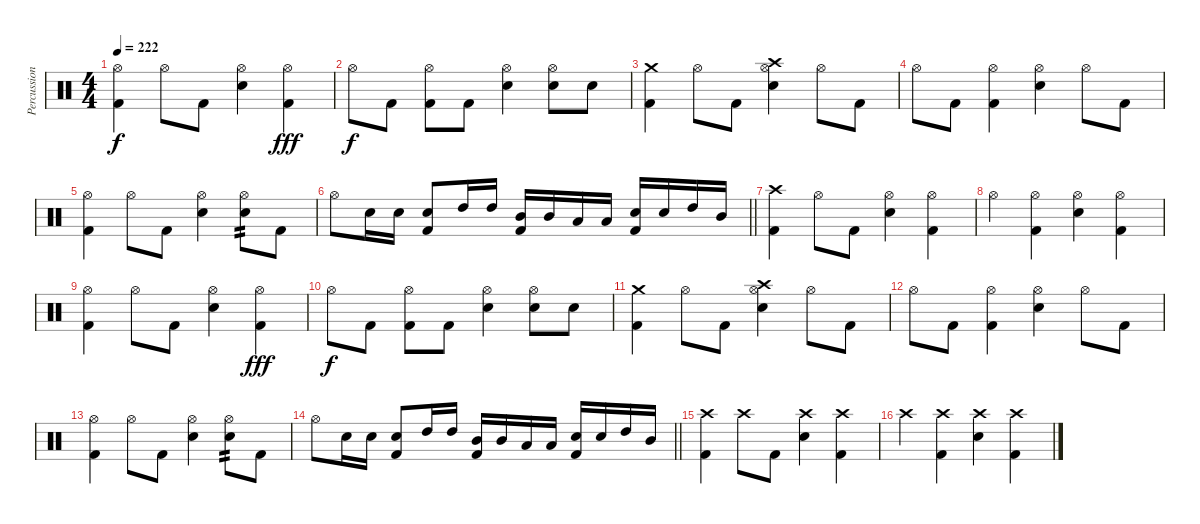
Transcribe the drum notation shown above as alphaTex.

\track ("Percussions" "Percussion") {instrument percussion}
\staff {score}
\articulation defaults
\ts (4 4)
\tempo 222
\clef neutral
\ks c
("Hi-Hat (open)" "Kick (hit) 2").4{dy f} "Hi-Hat (open)".8 "Kick (hit) 2".8 ("Hi-Hat (open)" "Electric Snare (hit)").4 ("Hi-Hat (open)" "Kick (hit) 2").4{dy fff} |
"Hi-Hat (open)".8{dy f} "Kick (hit) 2".8 ("Hi-Hat (open)" "Kick (hit) 2").8 "Kick (hit) 2".8 ("Hi-Hat (open)" "Electric Snare (hit)").4 ("Hi-Hat (open)" "Electric Snare (hit)").8 "Electric Snare (hit)".8 |
("Crash medium (hit)" "Kick (hit) 2").4 "Hi-Hat (open)".8 "Kick (hit) 2".8 ("Crash high (hit)" "Hi-Hat (open)" "Electric Snare (hit)").4 "Hi-Hat (open)".8 "Kick (hit) 2".8 |
"Hi-Hat (open)".8 "Kick (hit) 2".8 ("Hi-Hat (open)" "Kick (hit) 2").4 ("Hi-Hat (open)" "Electric Snare (hit)").4 "Hi-Hat (open)".8 "Kick (hit) 2".8 |
("Hi-Hat (open)" "Kick (hit) 2").4 "Hi-Hat (open)".8 "Kick (hit) 2".8 ("Hi-Hat (open)" "Electric Snare (hit)").4 ("Hi-Hat (open)" "Electric Snare (hit)").8{tp 2} "Kick (hit) 2".8 |
\barLineRight lightlight "Hi-Hat (open)".8 "Electric Snare (hit)".16 "Electric Snare (hit)".16
("Electric Snare (hit)" "Kick (hit) 2").8 "High Tom (hit)".16 "High Tom (hit)".16 ("Mid Tom (hit)" "Kick (hit) 2").16 "Mid Tom (hit)".16 "Low Tom (hit)".16 "Low Tom (hit)".16 ("Electric Snare (hit)" "Kick (hit) 2").16 "Electric Snare (hit)".16 "High Tom (hit)".16 "Mid Tom (hit)".16 |
("Crash high (hit)" "Kick (hit) 2").4 "Hi-Hat (open)".8 "Kick (hit) 2".8 ("Hi-Hat (open)" "Electric Snare (hit)").4 ("Hi-Hat (open)" "Kick (hit) 2").4 |
"Hi-Hat (open)".4 ("Hi-Hat (open)" "Kick (hit) 2").4 ("Hi-Hat (open)" "Electric Snare (hit)").4 ("Hi-Hat (open)" "Kick (hit) 2").4 |
("Hi-Hat (open)" "Kick (hit) 2").4 "Hi-Hat (open)".8 "Kick (hit) 2".8 ("Hi-Hat (open)" "Electric Snare (hit)").4 ("Hi-Hat (open)" "Kick (hit) 2").4{dy fff} |
"Hi-Hat (open)".8{dy f} "Kick (hit) 2".8 ("Hi-Hat (open)" "Kick (hit) 2").8 "Kick (hit) 2".8 ("Hi-Hat (open)" "Electric Snare (hit)").4 ("Hi-Hat (open)" "Electric Snare (hit)").8 "Electric Snare (hit)".8 |
("Crash medium (hit)" "Kick (hit) 2").4 "Hi-Hat (open)".8 "Kick (hit) 2".8 ("Crash high (hit)" "Hi-Hat (open)" "Electric Snare (hit)").4 "Hi-Hat (open)".8 "Kick (hit) 2".8 |
"Hi-Hat (open)".8 "Kick (hit) 2".8 ("Hi-Hat (open)" "Kick (hit) 2").4 ("Hi-Hat (open)" "Electric Snare (hit)").4 "Hi-Hat (open)".8 "Kick (hit) 2".8 |
("Hi-Hat (open)" "Kick (hit) 2").4 "Hi-Hat (open)".8 "Kick (hit) 2".8 ("Hi-Hat (open)" "Electric Snare (hit)").4 ("Hi-Hat (open)" "Electric Snare (hit)").8{tp 2} "Kick (hit) 2".8 |
\barLineRight lightlight "Hi-Hat (open)".8 "Electric Snare (hit)".16 "Electric Snare (hit)".16
("Electric Snare (hit)" "Kick (hit) 2").8 "High Tom (hit)".16 "High Tom (hit)".16 ("Mid Tom (hit)" "Kick (hit) 2").16 "Mid Tom (hit)".16 "Low Tom (hit)".16 "Low Tom (hit)".16 ("Electric Snare (hit)" "Kick (hit) 2").16 "Electric Snare (hit)".16 "High Tom (hit)".16 "Mid Tom (hit)".16 |
\section ("" "")
("Crash high (hit)" "Kick (hit) 2").4 "Crash high (hit)".8 "Kick (hit) 2".8 ("Crash high (hit)" "Electric Snare (hit)").4 ("Crash high (hit)" "Kick (hit) 2").4 |
"Crash high (hit)".4 ("Crash high (hit)" "Kick (hit) 2").4 ("Crash high (hit)" "Electric Snare (hit)").4 ("Crash high (hit)" "Kick (hit) 2").4
